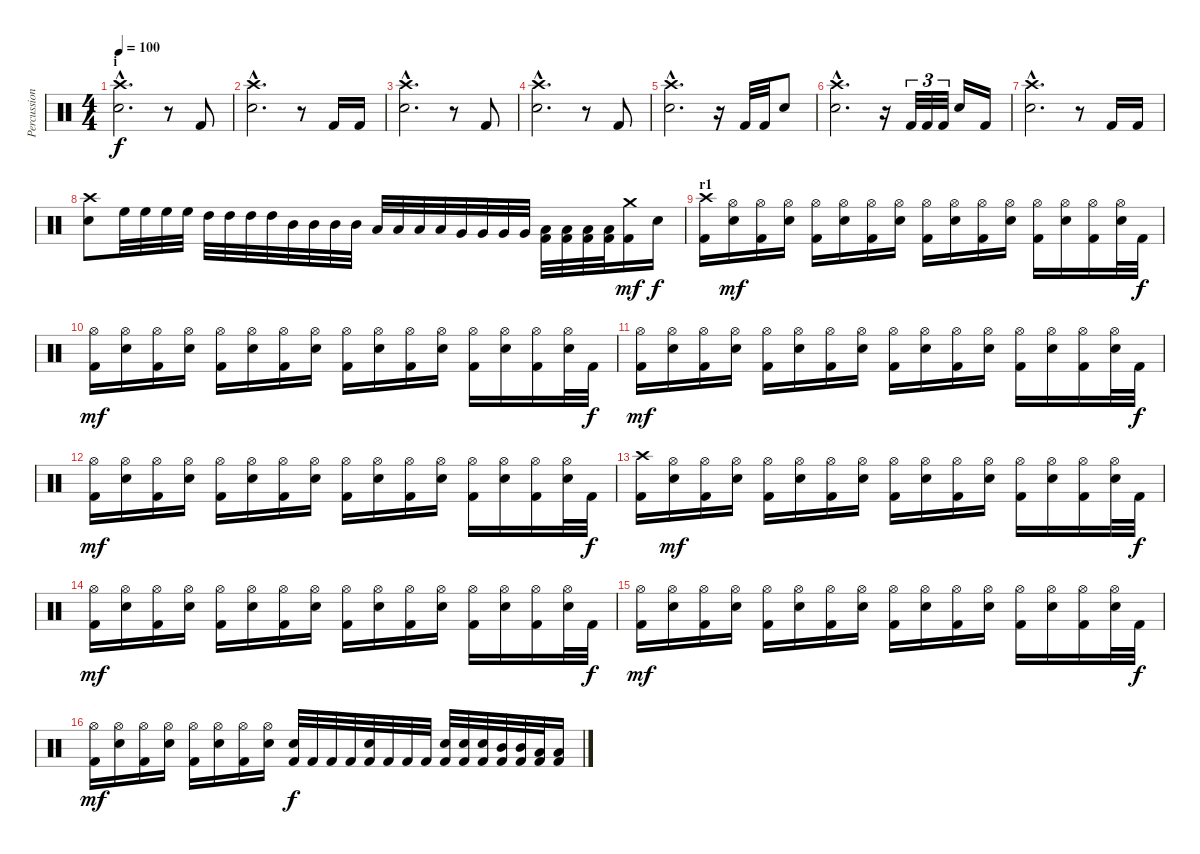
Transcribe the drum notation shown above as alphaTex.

\track ("Percussion" "Percussion") {instrument percussion}
\staff {score}
\articulation defaults
\ts (4 4)
\section ("" "i")
\tempo 100
\clef neutral
\ks c
("Crash high (hit)"{hac} "Electric Snare (hit)"{hac}).2{d dy f} r.8 "Kick (hit) 2".8 |
("Crash high (hit)"{hac} "Electric Snare (hit)"{hac}).2{d} r.8 "Kick (hit) 2".16 "Kick (hit) 2".16 |
("Crash high (hit)"{hac} "Electric Snare (hit)"{hac}).2{d} r.8 "Kick (hit) 2".8 |
("Crash high (hit)"{hac} "Electric Snare (hit)"{hac}).2{d} r.8 "Kick (hit) 2".8 |
("Crash high (hit)"{hac} "Electric Snare (hit)"{hac}).2{d} r.16 "Kick (hit) 2".32 "Kick (hit) 2".32 "Electric Snare (hit)".8 |
("Crash high (hit)"{hac} "Electric Snare (hit)"{hac}).2{d} r.16 "Kick (hit) 2".32{tu (3 2)} "Kick (hit) 2".32{tu (3 2)} "Kick (hit) 2".32{tu (3 2)} "Electric Snare (hit)".16 "Kick (hit) 2".16 |
("Crash high (hit)"{hac} "Electric Snare (hit)"{hac}).2{d} r.8 "Kick (hit) 2".16 "Kick (hit) 2".16 |
("Crash high (hit)" "Electric Snare (hit)").8 "High Floor Tom (hit)".32 "High Floor Tom (hit)".32 "High Floor Tom (hit)".32 "High Floor Tom (hit)".32 "High Tom (hit)".32 "High Tom (hit)".32 "High Tom (hit)".32 "High Tom (hit)".32 "Mid Tom (hit)".32 "Mid Tom (hit)".32 "Mid Tom (hit)".32 "Mid Tom (hit)".32 "Low Tom (hit)".32 "Low Tom (hit)".32 "Low Tom (hit)".32 "Low Tom (hit)".32 "Very Low Tom (hit)".32 "Very Low Tom (hit)".32 "Very Low Tom (hit)".32 "Very Low Tom (hit)".32 ("Low Floor Tom (hit)" "Kick (hit) 2").32 ("Low Floor Tom (hit)" "Kick (hit) 2").32 ("Low Floor Tom (hit)" "Kick (hit) 2").32 ("Low Floor Tom (hit)" "Kick (hit) 2").32 ("Crash medium (hit)" "Kick (hit) 2").16{dy mf} "Electric Snare (hit)".16{dy f} |
\section ("" "r1")
("Crash high (hit)" "Kick (hit) 2").16 ("Hi-Hat (open)" "Electric Snare (hit)").16{dy mf} ("Hi-Hat (open)" "Kick (hit) 2").16 ("Hi-Hat (open)" "Electric Snare (hit)").16 ("Hi-Hat (open)" "Kick (hit) 2").16 ("Hi-Hat (open)" "Electric Snare (hit)").16 ("Hi-Hat (open)" "Kick (hit) 2").16 ("Hi-Hat (open)" "Electric Snare (hit)").16 ("Hi-Hat (open)" "Kick (hit) 2").16 ("Hi-Hat (open)" "Electric Snare (hit)").16 ("Hi-Hat (open)" "Kick (hit) 2").16 ("Hi-Hat (open)" "Electric Snare (hit)").16 ("Hi-Hat (open)" "Kick (hit) 2").16 ("Hi-Hat (open)" "Electric Snare (hit)").16 ("Hi-Hat (open)" "Kick (hit) 2").16 ("Hi-Hat (open)" "Electric Snare (hit)").32 "Kick (hit) 2".32{dy f} |
("Hi-Hat (open)" "Kick (hit) 2").16{dy mf} ("Hi-Hat (open)" "Electric Snare (hit)").16 ("Hi-Hat (open)" "Kick (hit) 2").16 ("Hi-Hat (open)" "Electric Snare (hit)").16 ("Hi-Hat (open)" "Kick (hit) 2").16 ("Hi-Hat (open)" "Electric Snare (hit)").16 ("Hi-Hat (open)" "Kick (hit) 2").16 ("Hi-Hat (open)" "Electric Snare (hit)").16 ("Hi-Hat (open)" "Kick (hit) 2").16 ("Hi-Hat (open)" "Electric Snare (hit)").16 ("Hi-Hat (open)" "Kick (hit) 2").16 ("Hi-Hat (open)" "Electric Snare (hit)").16 ("Hi-Hat (open)" "Kick (hit) 2").16 ("Hi-Hat (open)" "Electric Snare (hit)").16 ("Hi-Hat (open)" "Kick (hit) 2").16 ("Hi-Hat (open)" "Electric Snare (hit)").32 "Kick (hit) 2".32{dy f} |
("Hi-Hat (open)" "Kick (hit) 2").16{dy mf} ("Hi-Hat (open)" "Electric Snare (hit)").16 ("Hi-Hat (open)" "Kick (hit) 2").16 ("Hi-Hat (open)" "Electric Snare (hit)").16 ("Hi-Hat (open)" "Kick (hit) 2").16 ("Hi-Hat (open)" "Electric Snare (hit)").16 ("Hi-Hat (open)" "Kick (hit) 2").16 ("Hi-Hat (open)" "Electric Snare (hit)").16 ("Hi-Hat (open)" "Kick (hit) 2").16 ("Hi-Hat (open)" "Electric Snare (hit)").16 ("Hi-Hat (open)" "Kick (hit) 2").16 ("Hi-Hat (open)" "Electric Snare (hit)").16 ("Hi-Hat (open)" "Kick (hit) 2").16 ("Hi-Hat (open)" "Electric Snare (hit)").16 ("Hi-Hat (open)" "Kick (hit) 2").16 ("Hi-Hat (open)" "Electric Snare (hit)").32 "Kick (hit) 2".32{dy f} |
("Hi-Hat (open)" "Kick (hit) 2").16{dy mf} ("Hi-Hat (open)" "Electric Snare (hit)").16 ("Hi-Hat (open)" "Kick (hit) 2").16 ("Hi-Hat (open)" "Electric Snare (hit)").16 ("Hi-Hat (open)" "Kick (hit) 2").16 ("Hi-Hat (open)" "Electric Snare (hit)").16 ("Hi-Hat (open)" "Kick (hit) 2").16 ("Hi-Hat (open)" "Electric Snare (hit)").16 ("Hi-Hat (open)" "Kick (hit) 2").16 ("Hi-Hat (open)" "Electric Snare (hit)").16 ("Hi-Hat (open)" "Kick (hit) 2").16 ("Hi-Hat (open)" "Electric Snare (hit)").16 ("Hi-Hat (open)" "Kick (hit) 2").16 ("Hi-Hat (open)" "Electric Snare (hit)").16 ("Hi-Hat (open)" "Kick (hit) 2").16 ("Hi-Hat (open)" "Electric Snare (hit)").32 "Kick (hit) 2".32{dy f} |
("Crash high (hit)" "Kick (hit) 2").16 ("Hi-Hat (open)" "Electric Snare (hit)").16{dy mf} ("Hi-Hat (open)" "Kick (hit) 2").16 ("Hi-Hat (open)" "Electric Snare (hit)").16 ("Hi-Hat (open)" "Kick (hit) 2").16 ("Hi-Hat (open)" "Electric Snare (hit)").16 ("Hi-Hat (open)" "Kick (hit) 2").16 ("Hi-Hat (open)" "Electric Snare (hit)").16 ("Hi-Hat (open)" "Kick (hit) 2").16 ("Hi-Hat (open)" "Electric Snare (hit)").16 ("Hi-Hat (open)" "Kick (hit) 2").16 ("Hi-Hat (open)" "Electric Snare (hit)").16 ("Hi-Hat (open)" "Kick (hit) 2").16 ("Hi-Hat (open)" "Electric Snare (hit)").16 ("Hi-Hat (open)" "Kick (hit) 2").16 ("Hi-Hat (open)" "Electric Snare (hit)").32 "Kick (hit) 2".32{dy f} |
("Hi-Hat (open)" "Kick (hit) 2").16{dy mf} ("Hi-Hat (open)" "Electric Snare (hit)").16 ("Hi-Hat (open)" "Kick (hit) 2").16 ("Hi-Hat (open)" "Electric Snare (hit)").16 ("Hi-Hat (open)" "Kick (hit) 2").16 ("Hi-Hat (open)" "Electric Snare (hit)").16 ("Hi-Hat (open)" "Kick (hit) 2").16 ("Hi-Hat (open)" "Electric Snare (hit)").16 ("Hi-Hat (open)" "Kick (hit) 2").16 ("Hi-Hat (open)" "Electric Snare (hit)").16 ("Hi-Hat (open)" "Kick (hit) 2").16 ("Hi-Hat (open)" "Electric Snare (hit)").16 ("Hi-Hat (open)" "Kick (hit) 2").16 ("Hi-Hat (open)" "Electric Snare (hit)").16 ("Hi-Hat (open)" "Kick (hit) 2").16 ("Hi-Hat (open)" "Electric Snare (hit)").32 "Kick (hit) 2".32{dy f} |
("Hi-Hat (open)" "Kick (hit) 2").16{dy mf} ("Hi-Hat (open)" "Electric Snare (hit)").16 ("Hi-Hat (open)" "Kick (hit) 2").16 ("Hi-Hat (open)" "Electric Snare (hit)").16 ("Hi-Hat (open)" "Kick (hit) 2").16 ("Hi-Hat (open)" "Electric Snare (hit)").16 ("Hi-Hat (open)" "Kick (hit) 2").16 ("Hi-Hat (open)" "Electric Snare (hit)").16 ("Hi-Hat (open)" "Kick (hit) 2").16 ("Hi-Hat (open)" "Electric Snare (hit)").16 ("Hi-Hat (open)" "Kick (hit) 2").16 ("Hi-Hat (open)" "Electric Snare (hit)").16 ("Hi-Hat (open)" "Kick (hit) 2").16 ("Hi-Hat (open)" "Electric Snare (hit)").16 ("Hi-Hat (open)" "Kick (hit) 2").16 ("Hi-Hat (open)" "Electric Snare (hit)").32 "Kick (hit) 2".32{dy f} |
("Hi-Hat (open)" "Kick (hit) 2").16{dy mf} ("Hi-Hat (open)" "Electric Snare (hit)").16 ("Hi-Hat (open)" "Kick (hit) 2").16 ("Hi-Hat (open)" "Electric Snare (hit)").16 ("Hi-Hat (open)" "Kick (hit) 2").16 ("Hi-Hat (open)" "Electric Snare (hit)").16 ("Hi-Hat (open)" "Kick (hit) 2").16 ("Hi-Hat (open)" "Electric Snare (hit)").16 ("Electric Snare (hit)" "Kick (hit) 2").32{dy f} "Kick (hit) 2".32 "Kick (hit) 2".32 "Kick (hit) 2".32 ("Electric Snare (hit)" "Kick (hit) 2").32 "Kick (hit) 2".32 "Kick (hit) 2".32 "Kick (hit) 2".32 ("Electric Snare (hit)" "Kick (hit) 2").32 ("Electric Snare (hit)" "Kick (hit) 2").32 ("Electric Snare (hit)" "Kick (hit) 2").32 ("Mid Tom (hit)" "Kick (hit) 2").32 ("Mid Tom (hit)" "Kick (hit) 2").32 ("Low Tom (hit)" "Kick (hit) 2").32 ("Low Tom (hit)" "Kick (hit) 2").16
